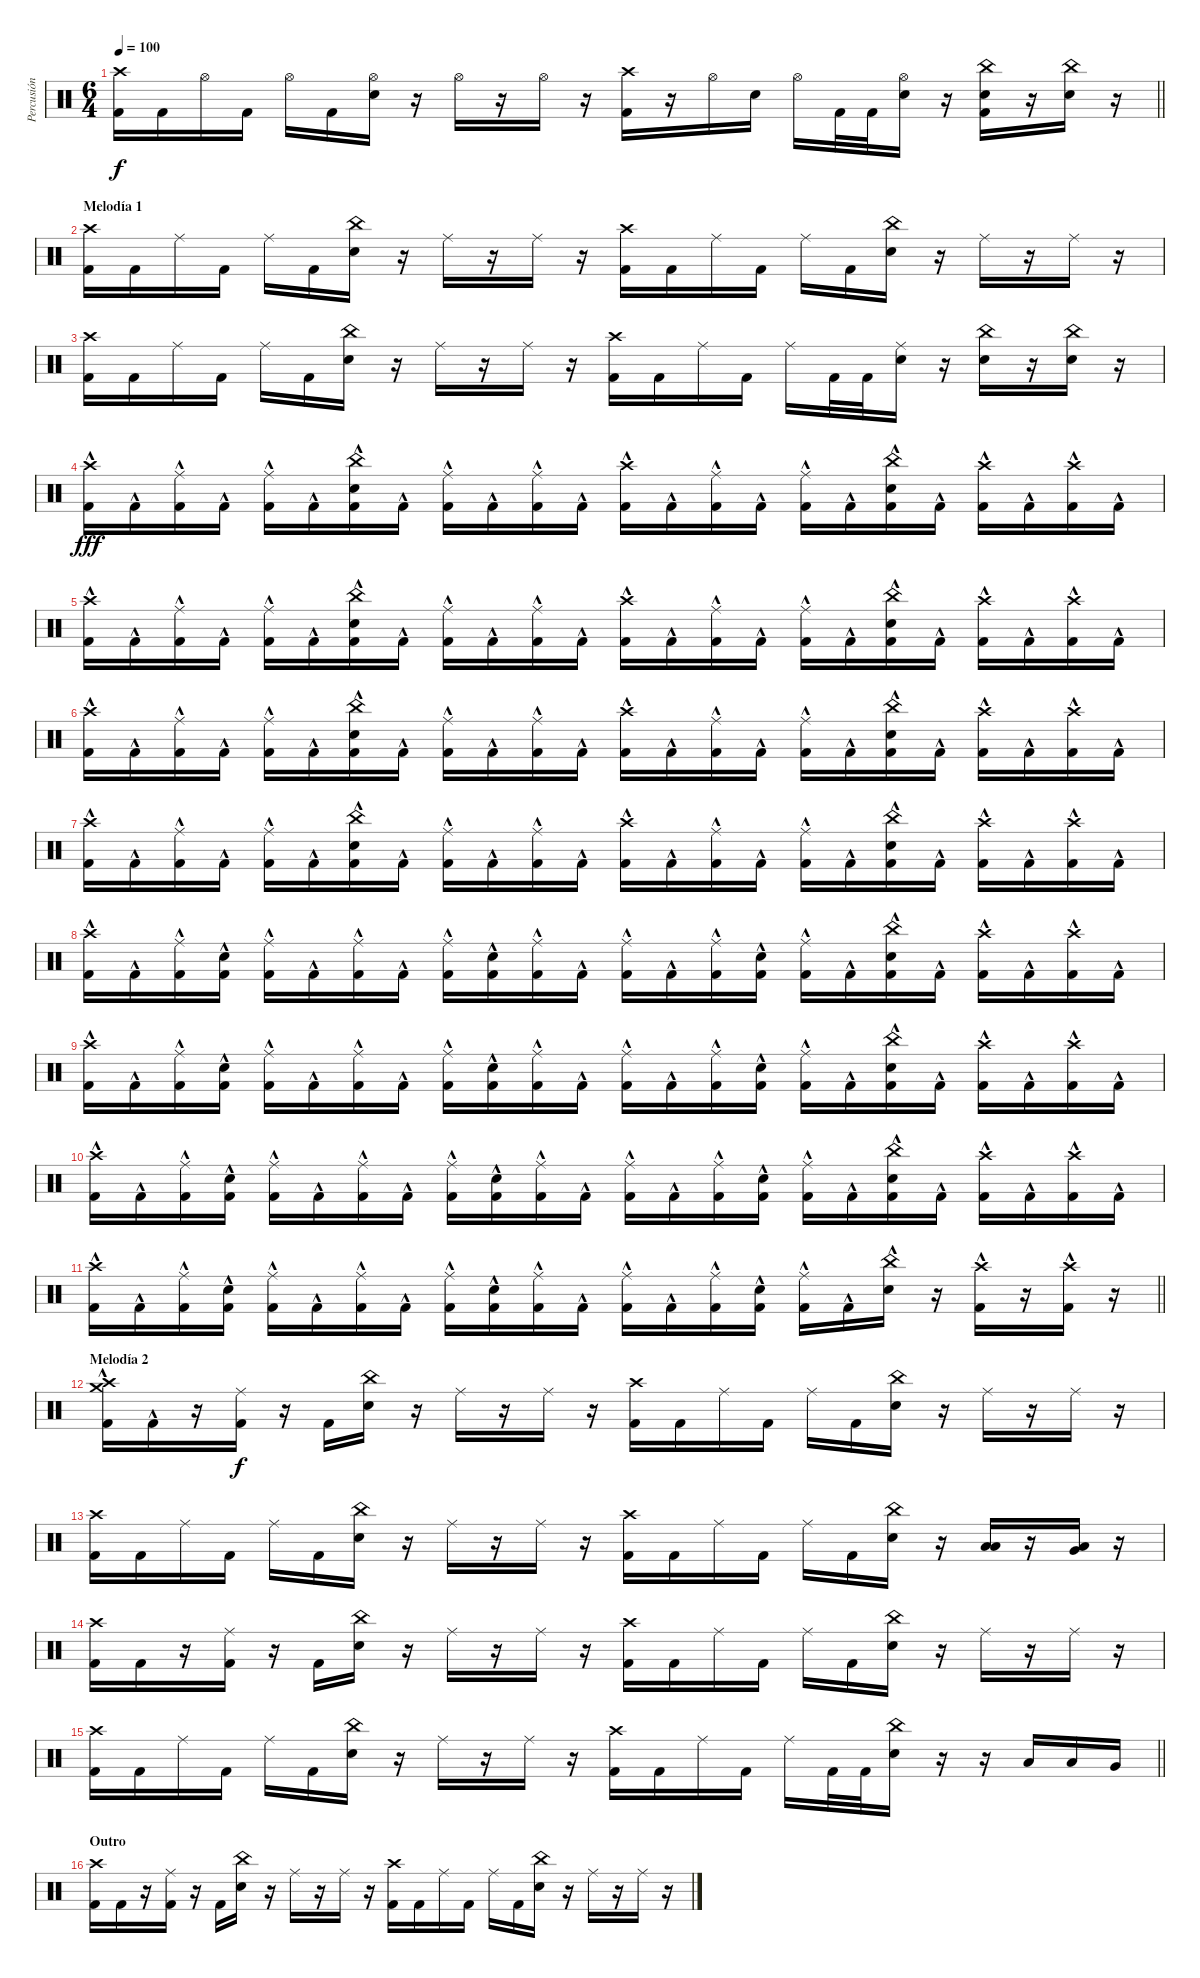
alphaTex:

\track ("Percusión" "Percusión") {instrument percussion}
\staff {score}
\articulation defaults
\ts (6 4)
\tempo 100
\clef neutral
\barLineRight lightlight
\ks c
("Crash high (hit)" "Kick (hit) 2").16{dy f} "Kick (hit) 2".16 "Hi-Hat (open)".16 "Kick (hit) 2".16 "Hi-Hat (open)".16 "Kick (hit) 2".16 ("Hi-Hat (open)" "Snare (hit) 2").16 r.16 "Hi-Hat (open)".16 r.16 "Hi-Hat (open)".16 r.16 ("Crash high (hit)" "Kick (hit) 2").16 r.16 "Hi-Hat (open)".16 "Snare (hit) 2".16 "Hi-Hat (open)".16 "Kick (hit) 2".32 "Kick (hit) 2".32 ("Hi-Hat (open)" "Snare (hit) 2").16 r.16 ("China (hit)" "Snare (hit) 2" "Kick (hit) 2").16 r.16 ("China (hit)" "Snare (hit) 2").16 r.16 |
\section ("" "Melodía 1")
("Crash high (hit)" "Kick (hit) 2").16 "Kick (hit) 2".16 "Ride (middle)".16 "Kick (hit) 2".16 "Ride (middle)".16 "Kick (hit) 2".16 ("China (hit)" "Snare (hit) 2").16 r.16 "Ride (middle)".16 r.16 "Ride (middle)".16 r.16 ("Crash high (hit)" "Kick (hit) 2").16 "Kick (hit) 2".16 "Ride (middle)".16 "Kick (hit) 2".16 "Ride (middle)".16 "Kick (hit) 2".16 ("China (hit)" "Snare (hit) 2").16 r.16 "Ride (middle)".16 r.16 "Ride (middle)".16 r.16 |
("Crash high (hit)" "Kick (hit) 2").16 "Kick (hit) 2".16 "Ride (middle)".16 "Kick (hit) 2".16 "Ride (middle)".16 "Kick (hit) 2".16 ("China (hit)" "Snare (hit) 2").16 r.16 "Ride (middle)".16 r.16 "Ride (middle)".16 r.16 ("Crash high (hit)" "Kick (hit) 2").16 "Kick (hit) 2".16 "Ride (middle)".16 "Kick (hit) 2".16 "Ride (middle)".16 "Kick (hit) 2".32 "Kick (hit) 2".32 ("Ride (middle)" "Snare (hit) 2").16 r.16 ("China (hit)" "Snare (hit) 2").16 r.16 ("China (hit)" "Snare (hit) 2").16 r.16 |
("Crash high (hit)" "Kick (hit) 2"{hac}).16{dy fff} "Kick (hit) 2"{hac}.16 ("Ride (middle)" "Kick (hit) 2"{hac}).16 "Kick (hit) 2"{hac}.16 ("Ride (middle)" "Kick (hit) 2"{hac}).16 "Kick (hit) 2"{hac}.16 ("China (hit)" "Snare (hit) 2"{hac} "Kick (hit) 2"{hac}).16 "Kick (hit) 2"{hac}.16 ("Ride (middle)" "Kick (hit) 2"{hac}).16 "Kick (hit) 2"{hac}.16 ("Ride (middle)" "Kick (hit) 2"{hac}).16 "Kick (hit) 2"{hac}.16 ("Crash high (hit)" "Kick (hit) 2"{hac}).16 "Kick (hit) 2"{hac}.16 ("Ride (middle)" "Kick (hit) 2"{hac}).16 "Kick (hit) 2"{hac}.16 ("Ride (middle)" "Kick (hit) 2"{hac}).16 "Kick (hit) 2"{hac}.16 ("China (hit)" "Snare (hit) 2"{hac} "Kick (hit) 2"{hac}).16 "Kick (hit) 2"{hac}.16 ("Crash high (hit)" "Kick (hit) 2"{hac}).16 "Kick (hit) 2"{hac}.16 ("Crash high (hit)" "Kick (hit) 2"{hac}).16 "Kick (hit) 2"{hac}.16 |
("Crash high (hit)" "Kick (hit) 2"{hac}).16 "Kick (hit) 2"{hac}.16 ("Ride (middle)" "Kick (hit) 2"{hac}).16 "Kick (hit) 2"{hac}.16 ("Ride (middle)" "Kick (hit) 2"{hac}).16 "Kick (hit) 2"{hac}.16 ("China (hit)" "Snare (hit) 2"{hac} "Kick (hit) 2"{hac}).16 "Kick (hit) 2"{hac}.16 ("Ride (middle)" "Kick (hit) 2"{hac}).16 "Kick (hit) 2"{hac}.16 ("Ride (middle)" "Kick (hit) 2"{hac}).16 "Kick (hit) 2"{hac}.16 ("Crash high (hit)" "Kick (hit) 2"{hac}).16 "Kick (hit) 2"{hac}.16 ("Ride (middle)" "Kick (hit) 2"{hac}).16 "Kick (hit) 2"{hac}.16 ("Ride (middle)" "Kick (hit) 2"{hac}).16 "Kick (hit) 2"{hac}.16 ("China (hit)" "Snare (hit) 2"{hac} "Kick (hit) 2"{hac}).16 "Kick (hit) 2"{hac}.16 ("Crash high (hit)" "Kick (hit) 2"{hac}).16 "Kick (hit) 2"{hac}.16 ("Crash high (hit)" "Kick (hit) 2"{hac}).16 "Kick (hit) 2"{hac}.16 |
("Crash high (hit)" "Kick (hit) 2"{hac}).16 "Kick (hit) 2"{hac}.16 ("Ride (middle)" "Kick (hit) 2"{hac}).16 "Kick (hit) 2"{hac}.16 ("Ride (middle)" "Kick (hit) 2"{hac}).16 "Kick (hit) 2"{hac}.16 ("China (hit)" "Snare (hit) 2"{hac} "Kick (hit) 2"{hac}).16 "Kick (hit) 2"{hac}.16 ("Ride (middle)" "Kick (hit) 2"{hac}).16 "Kick (hit) 2"{hac}.16 ("Ride (middle)" "Kick (hit) 2"{hac}).16 "Kick (hit) 2"{hac}.16 ("Crash high (hit)" "Kick (hit) 2"{hac}).16 "Kick (hit) 2"{hac}.16 ("Ride (middle)" "Kick (hit) 2"{hac}).16 "Kick (hit) 2"{hac}.16 ("Ride (middle)" "Kick (hit) 2"{hac}).16 "Kick (hit) 2"{hac}.16 ("China (hit)" "Snare (hit) 2"{hac} "Kick (hit) 2"{hac}).16 "Kick (hit) 2"{hac}.16 ("Crash high (hit)" "Kick (hit) 2"{hac}).16 "Kick (hit) 2"{hac}.16 ("Crash high (hit)" "Kick (hit) 2"{hac}).16 "Kick (hit) 2"{hac}.16 |
("Crash high (hit)" "Kick (hit) 2"{hac}).16 "Kick (hit) 2"{hac}.16 ("Ride (middle)" "Kick (hit) 2"{hac}).16 "Kick (hit) 2"{hac}.16 ("Ride (middle)" "Kick (hit) 2"{hac}).16 "Kick (hit) 2"{hac}.16 ("China (hit)" "Snare (hit) 2"{hac} "Kick (hit) 2"{hac}).16 "Kick (hit) 2"{hac}.16 ("Ride (middle)" "Kick (hit) 2"{hac}).16 "Kick (hit) 2"{hac}.16 ("Ride (middle)" "Kick (hit) 2"{hac}).16 "Kick (hit) 2"{hac}.16 ("Crash high (hit)" "Kick (hit) 2"{hac}).16 "Kick (hit) 2"{hac}.16 ("Ride (middle)" "Kick (hit) 2"{hac}).16 "Kick (hit) 2"{hac}.16 ("Ride (middle)" "Kick (hit) 2"{hac}).16 "Kick (hit) 2"{hac}.16 ("China (hit)" "Snare (hit) 2"{hac} "Kick (hit) 2"{hac}).16 "Kick (hit) 2"{hac}.16 ("Crash high (hit)" "Kick (hit) 2"{hac}).16 "Kick (hit) 2"{hac}.16 ("Crash high (hit)" "Kick (hit) 2"{hac}).16 "Kick (hit) 2"{hac}.16 |
("Crash high (hit)" "Kick (hit) 2"{hac}).16 "Kick (hit) 2"{hac}.16 ("Ride (middle)" "Kick (hit) 2"{hac}).16 ("Snare (hit) 2"{hac} "Kick (hit) 2"{hac}).16 ("Ride (middle)" "Kick (hit) 2"{hac}).16 "Kick (hit) 2"{hac}.16 ("Ride (middle)" "Kick (hit) 2"{hac}).16 "Kick (hit) 2"{hac}.16 ("Ride (middle)" "Kick (hit) 2"{hac}).16 ("Snare (hit) 2"{hac} "Kick (hit) 2"{hac}).16 ("Ride (middle)" "Kick (hit) 2"{hac}).16 "Kick (hit) 2"{hac}.16 ("Ride (middle)" "Kick (hit) 2"{hac}).16 "Kick (hit) 2"{hac}.16 ("Ride (middle)" "Kick (hit) 2"{hac}).16 ("Snare (hit) 2"{hac} "Kick (hit) 2"{hac}).16 ("Ride (middle)" "Kick (hit) 2"{hac}).16 "Kick (hit) 2"{hac}.16 ("China (hit)" "Snare (hit) 2"{hac} "Kick (hit) 2"{hac}).16 "Kick (hit) 2"{hac}.16 ("Crash high (hit)" "Kick (hit) 2"{hac}).16 "Kick (hit) 2"{hac}.16 ("Crash high (hit)" "Kick (hit) 2"{hac}).16 "Kick (hit) 2"{hac}.16 |
("Crash high (hit)" "Kick (hit) 2"{hac}).16 "Kick (hit) 2"{hac}.16 ("Ride (middle)" "Kick (hit) 2"{hac}).16 ("Snare (hit) 2"{hac} "Kick (hit) 2"{hac}).16 ("Ride (middle)" "Kick (hit) 2"{hac}).16 "Kick (hit) 2"{hac}.16 ("Ride (middle)" "Kick (hit) 2"{hac}).16 "Kick (hit) 2"{hac}.16 ("Ride (middle)" "Kick (hit) 2"{hac}).16 ("Snare (hit) 2"{hac} "Kick (hit) 2"{hac}).16 ("Ride (middle)" "Kick (hit) 2"{hac}).16 "Kick (hit) 2"{hac}.16 ("Ride (middle)" "Kick (hit) 2"{hac}).16 "Kick (hit) 2"{hac}.16 ("Ride (middle)" "Kick (hit) 2"{hac}).16 ("Snare (hit) 2"{hac} "Kick (hit) 2"{hac}).16 ("Ride (middle)" "Kick (hit) 2"{hac}).16 "Kick (hit) 2"{hac}.16 ("China (hit)" "Snare (hit) 2"{hac} "Kick (hit) 2"{hac}).16 "Kick (hit) 2"{hac}.16 ("Crash high (hit)" "Kick (hit) 2"{hac}).16 "Kick (hit) 2"{hac}.16 ("Crash high (hit)" "Kick (hit) 2"{hac}).16 "Kick (hit) 2"{hac}.16 |
("Crash high (hit)" "Kick (hit) 2"{hac}).16 "Kick (hit) 2"{hac}.16 ("Ride (middle)" "Kick (hit) 2"{hac}).16 ("Snare (hit) 2"{hac} "Kick (hit) 2"{hac}).16 ("Ride (middle)" "Kick (hit) 2"{hac}).16 "Kick (hit) 2"{hac}.16 ("Ride (middle)" "Kick (hit) 2"{hac}).16 "Kick (hit) 2"{hac}.16 ("Ride (middle)" "Kick (hit) 2"{hac}).16 ("Snare (hit) 2"{hac} "Kick (hit) 2"{hac}).16 ("Ride (middle)" "Kick (hit) 2"{hac}).16 "Kick (hit) 2"{hac}.16 ("Ride (middle)" "Kick (hit) 2"{hac}).16 "Kick (hit) 2"{hac}.16 ("Ride (middle)" "Kick (hit) 2"{hac}).16 ("Snare (hit) 2"{hac} "Kick (hit) 2"{hac}).16 ("Ride (middle)" "Kick (hit) 2"{hac}).16 "Kick (hit) 2"{hac}.16 ("China (hit)" "Snare (hit) 2"{hac} "Kick (hit) 2"{hac}).16 "Kick (hit) 2"{hac}.16 ("Crash high (hit)" "Kick (hit) 2"{hac}).16 "Kick (hit) 2"{hac}.16 ("Crash high (hit)" "Kick (hit) 2"{hac}).16 "Kick (hit) 2"{hac}.16 |
\barLineRight lightlight
("Crash high (hit)" "Kick (hit) 2"{hac}).16 "Kick (hit) 2"{hac}.16 ("Ride (middle)" "Kick (hit) 2"{hac}).16 ("Snare (hit) 2"{hac} "Kick (hit) 2"{hac}).16 ("Ride (middle)" "Kick (hit) 2"{hac}).16 "Kick (hit) 2"{hac}.16 ("Ride (middle)" "Kick (hit) 2"{hac}).16 "Kick (hit) 2"{hac}.16 ("Ride (middle)" "Kick (hit) 2"{hac}).16 ("Snare (hit) 2"{hac} "Kick (hit) 2"{hac}).16 ("Ride (middle)" "Kick (hit) 2"{hac}).16 "Kick (hit) 2"{hac}.16 ("Ride (middle)" "Kick (hit) 2"{hac}).16 "Kick (hit) 2"{hac}.16 ("Ride (middle)" "Kick (hit) 2"{hac}).16 ("Snare (hit) 2"{hac} "Kick (hit) 2"{hac}).16 ("Ride (middle)" "Kick (hit) 2"{hac}).16 "Kick (hit) 2"{hac}.16 ("China (hit)" "Snare (hit) 2"{hac}).16 r.16 ("Crash high (hit)" "Kick (hit) 2"{hac}).16 r.16 ("Crash high (hit)" "Kick (hit) 2"{hac}).16 r.16 |
\section ("" "Melodía 2")
("Crash high (hit)" "Crash medium (hit)" "Kick (hit) 2"{hac}).16 "Kick (hit) 2"{hac}.16 r.16 ("Ride (middle)" "Kick (hit) 2").16{dy f} r.16 "Kick (hit) 2".16 ("China (hit)" "Snare (hit) 2").16 r.16 "Ride (middle)".16 r.16 "Ride (middle)".16 r.16 ("Crash high (hit)" "Kick (hit) 2").16 "Kick (hit) 2".16 "Ride (middle)".16 "Kick (hit) 2".16 "Ride (middle)".16 "Kick (hit) 2".16 ("China (hit)" "Snare (hit) 2").16 r.16 "Ride (middle)".16 r.16 "Ride (middle)".16 r.16 |
("Crash high (hit)" "Kick (hit) 2").16 "Kick (hit) 2".16 "Ride (middle)".16 "Kick (hit) 2".16 "Ride (middle)".16 "Kick (hit) 2".16 ("China (hit)" "Snare (hit) 2").16 r.16 "Ride (middle)".16 r.16 "Ride (middle)".16 r.16 ("Crash high (hit)" "Kick (hit) 2").16 "Kick (hit) 2".16 "Ride (middle)".16 "Kick (hit) 2".16 "Ride (middle)".16 "Kick (hit) 2".16 ("China (hit)" "Snare (hit) 2").16 r.16 ("Low Floor Tom (hit)" "Low Tom (hit)").16 r.16 ("Very Low Tom (hit)" "Low Floor Tom (hit)").16 r.16 |
("Crash high (hit)" "Kick (hit) 2").16 "Kick (hit) 2".16 r.16 ("Ride (middle)" "Kick (hit) 2").16 r.16 "Kick (hit) 2".16 ("China (hit)" "Snare (hit) 2").16 r.16 "Ride (middle)".16 r.16 "Ride (middle)".16 r.16 ("Crash high (hit)" "Kick (hit) 2").16 "Kick (hit) 2".16 "Ride (middle)".16 "Kick (hit) 2".16 "Ride (middle)".16 "Kick (hit) 2".16 ("China (hit)" "Snare (hit) 2").16 r.16 "Ride (middle)".16 r.16 "Ride (middle)".16 r.16 |
\barLineRight lightlight
("Crash high (hit)" "Kick (hit) 2").16 "Kick (hit) 2".16 "Ride (middle)".16 "Kick (hit) 2".16 "Ride (middle)".16 "Kick (hit) 2".16 ("China (hit)" "Snare (hit) 2").16 r.16 "Ride (middle)".16 r.16 "Ride (middle)".16 r.16 ("Crash high (hit)" "Kick (hit) 2").16 "Kick (hit) 2".16 "Ride (middle)".16 "Kick (hit) 2".16 "Ride (middle)".16 "Kick (hit) 2".32 "Kick (hit) 2".32 ("China (hit)" "Snare (hit) 2").16 r.16 r.16 "Low Tom (hit)".16 "Low Floor Tom (hit)".16 "Very Low Tom (hit)".16 |
\section ("" "Outro")
("Crash high (hit)" "Kick (hit) 2").16 "Kick (hit) 2".16 r.16 ("Ride (middle)" "Kick (hit) 2").16 r.16 "Kick (hit) 2".16 ("China (hit)" "Snare (hit) 2").16 r.16 "Ride (middle)".16 r.16 "Ride (middle)".16 r.16 ("Crash high (hit)" "Kick (hit) 2").16 "Kick (hit) 2".16 "Ride (middle)".16 "Kick (hit) 2".16 "Ride (middle)".16 "Kick (hit) 2".16 ("China (hit)" "Snare (hit) 2").16 r.16 "Ride (middle)".16 r.16 "Ride (middle)".16 r.16
